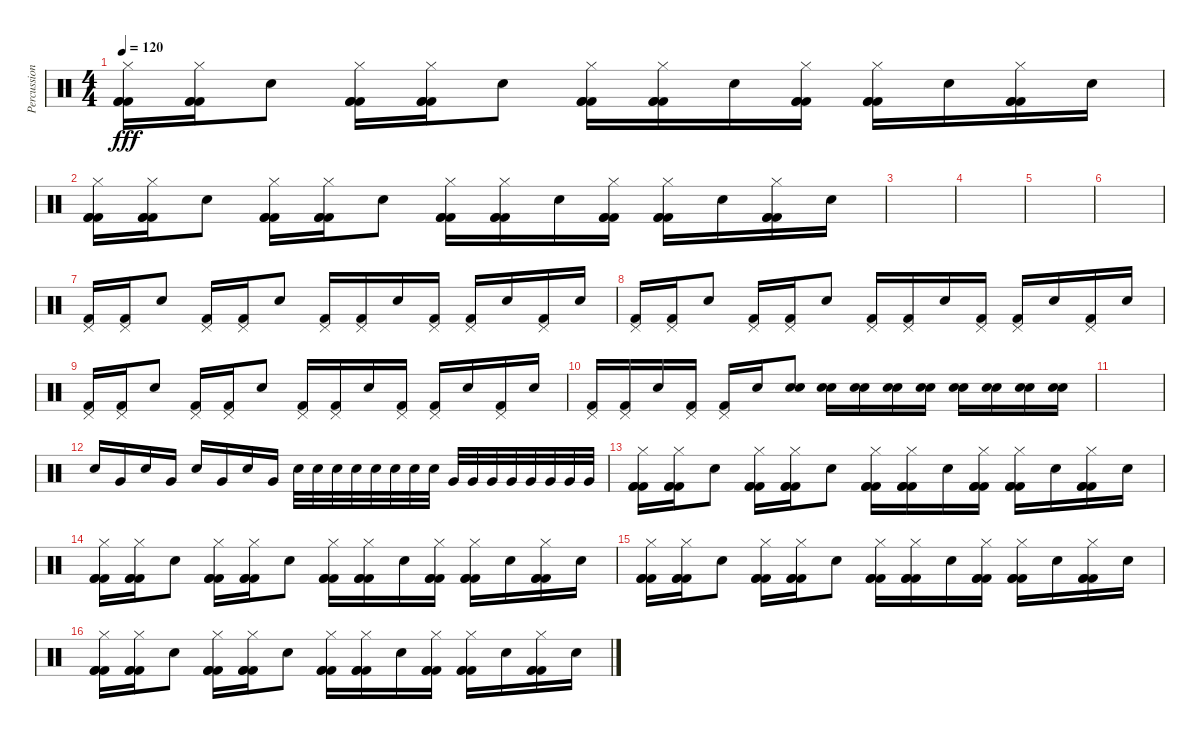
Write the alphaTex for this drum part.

\track ("Percussion" "Percussion") {instrument percussion}
\staff {score}
\articulation defaults
\ts (4 4)
\tempo 120
\clef neutral
\ks c
("Kick (hit) 2" "Kick (hit) 2" "Hi-Hat (closed)" "Kick (hit) 2").16{dy fff} ("Kick (hit) 2" "Kick (hit) 2" "Hi-Hat (closed)" "Kick (hit) 2").16 "Snare (hit) 2".8 ("Kick (hit) 2" "Kick (hit) 2" "Hi-Hat (closed)" "Kick (hit) 2").16 ("Kick (hit) 2" "Kick (hit) 2" "Hi-Hat (closed)" "Kick (hit) 2").16 "Snare (hit) 2".8 ("Kick (hit) 2" "Kick (hit) 2" "Hi-Hat (closed)" "Kick (hit) 2").16 ("Kick (hit) 2" "Kick (hit) 2" "Hi-Hat (closed)" "Kick (hit) 2").16 "Snare (hit) 2".16 ("Kick (hit) 2" "Kick (hit) 2" "Hi-Hat (closed)" "Kick (hit) 2").16 ("Kick (hit) 2" "Kick (hit) 2" "Hi-Hat (closed)" "Kick (hit) 2").16 "Snare (hit) 2".16 ("Kick (hit) 2" "Kick (hit) 2" "Hi-Hat (closed)" "Kick (hit) 2").16 "Snare (hit) 2".16 |
("Kick (hit) 2" "Kick (hit) 2" "Hi-Hat (closed)" "Kick (hit) 2").16 ("Kick (hit) 2" "Kick (hit) 2" "Hi-Hat (closed)" "Kick (hit) 2").16 "Snare (hit) 2".8 ("Kick (hit) 2" "Kick (hit) 2" "Hi-Hat (closed)" "Kick (hit) 2").16 ("Kick (hit) 2" "Kick (hit) 2" "Hi-Hat (closed)" "Kick (hit) 2").16 "Snare (hit) 2".8 ("Kick (hit) 2" "Kick (hit) 2" "Hi-Hat (closed)" "Kick (hit) 2").16 ("Kick (hit) 2" "Kick (hit) 2" "Hi-Hat (closed)" "Kick (hit) 2").16 "Snare (hit) 2".16 ("Kick (hit) 2" "Kick (hit) 2" "Hi-Hat (closed)" "Kick (hit) 2").16 ("Kick (hit) 2" "Kick (hit) 2" "Hi-Hat (closed)" "Kick (hit) 2").16 "Snare (hit) 2".16 ("Kick (hit) 2" "Kick (hit) 2" "Hi-Hat (closed)" "Kick (hit) 2").16 "Snare (hit) 2".16 |
|
|
|
|
("Pedal Hi-Hat (hit)" "Kick (hit) 2").16 ("Pedal Hi-Hat (hit)" "Kick (hit) 2").16 "Snare (hit) 2".8 ("Pedal Hi-Hat (hit)" "Kick (hit) 2").16 ("Pedal Hi-Hat (hit)" "Kick (hit) 2").16 "Snare (hit) 2".8 ("Pedal Hi-Hat (hit)" "Kick (hit) 2").16 ("Pedal Hi-Hat (hit)" "Kick (hit) 2").16 "Snare (hit) 2".16 ("Pedal Hi-Hat (hit)" "Kick (hit) 2").16 ("Pedal Hi-Hat (hit)" "Kick (hit) 2").16 "Snare (hit) 2".16 ("Pedal Hi-Hat (hit)" "Kick (hit) 2").16 "Snare (hit) 2".16 |
("Pedal Hi-Hat (hit)" "Kick (hit) 2").16 ("Pedal Hi-Hat (hit)" "Kick (hit) 2").16 "Snare (hit) 2".8 ("Pedal Hi-Hat (hit)" "Kick (hit) 2").16 ("Pedal Hi-Hat (hit)" "Kick (hit) 2").16 "Snare (hit) 2".8 ("Pedal Hi-Hat (hit)" "Kick (hit) 2").16 ("Pedal Hi-Hat (hit)" "Kick (hit) 2").16 "Snare (hit) 2".16 ("Pedal Hi-Hat (hit)" "Kick (hit) 2").16 ("Pedal Hi-Hat (hit)" "Kick (hit) 2").16 "Snare (hit) 2".16 ("Pedal Hi-Hat (hit)" "Kick (hit) 2").16 "Snare (hit) 2".16 |
("Pedal Hi-Hat (hit)" "Kick (hit) 2").16 ("Pedal Hi-Hat (hit)" "Kick (hit) 2").16 "Snare (hit) 2".8 ("Pedal Hi-Hat (hit)" "Kick (hit) 2").16 ("Pedal Hi-Hat (hit)" "Kick (hit) 2").16 "Snare (hit) 2".8 ("Pedal Hi-Hat (hit)" "Kick (hit) 2").16 ("Pedal Hi-Hat (hit)" "Kick (hit) 2").16 "Snare (hit) 2".16 ("Pedal Hi-Hat (hit)" "Kick (hit) 2").16 ("Pedal Hi-Hat (hit)" "Kick (hit) 2").16 "Snare (hit) 2".16 ("Pedal Hi-Hat (hit)" "Kick (hit) 2").16 "Snare (hit) 2".16 |
("Pedal Hi-Hat (hit)" "Kick (hit) 2").16 ("Pedal Hi-Hat (hit)" "Kick (hit) 2").16 "Snare (hit) 2".16 ("Pedal Hi-Hat (hit)" "Kick (hit) 2").16 ("Pedal Hi-Hat (hit)" "Kick (hit) 2").16 "Snare (hit) 2".16 ("Snare (hit) 2" "Snare (hit) 2").8 ("Snare (hit) 2" "Snare (hit) 2").16 ("Snare (hit) 2" "Snare (hit) 2").16 ("Snare (hit) 2" "Snare (hit) 2").16 ("Snare (hit) 2" "Snare (hit) 2").16 ("Snare (hit) 2" "Snare (hit) 2").16 ("Snare (hit) 2" "Snare (hit) 2").16 ("Snare (hit) 2" "Snare (hit) 2").16 ("Snare (hit) 2" "Snare (hit) 2").16 |
|
"Snare (hit) 2".16 "Very Low Tom (hit)".16 "Snare (hit) 2".16 "Very Low Tom (hit)".16 "Snare (hit) 2".16 "Very Low Tom (hit)".16 "Snare (hit) 2".16 "Very Low Tom (hit)".16 "Snare (hit) 2".32 "Snare (hit) 2".32 "Snare (hit) 2".32 "Snare (hit) 2".32 "Snare (hit) 2".32 "Snare (hit) 2".32 "Snare (hit) 2".32 "Snare (hit) 2".32 "Very Low Tom (hit)".32 "Very Low Tom (hit)".32 "Very Low Tom (hit)".32 "Very Low Tom (hit)".32 "Very Low Tom (hit)".32 "Very Low Tom (hit)".32 "Very Low Tom (hit)".32 "Very Low Tom (hit)".32 |
("Kick (hit) 2" "Kick (hit) 2" "Hi-Hat (closed)" "Kick (hit) 2").16 ("Kick (hit) 2" "Kick (hit) 2" "Hi-Hat (closed)" "Kick (hit) 2").16 "Snare (hit) 2".8 ("Kick (hit) 2" "Kick (hit) 2" "Hi-Hat (closed)" "Kick (hit) 2").16 ("Kick (hit) 2" "Kick (hit) 2" "Hi-Hat (closed)" "Kick (hit) 2").16 "Snare (hit) 2".8 ("Kick (hit) 2" "Kick (hit) 2" "Hi-Hat (closed)" "Kick (hit) 2").16 ("Kick (hit) 2" "Kick (hit) 2" "Hi-Hat (closed)" "Kick (hit) 2").16 "Snare (hit) 2".16 ("Kick (hit) 2" "Kick (hit) 2" "Hi-Hat (closed)" "Kick (hit) 2").16 ("Kick (hit) 2" "Kick (hit) 2" "Hi-Hat (closed)" "Kick (hit) 2").16 "Snare (hit) 2".16 ("Kick (hit) 2" "Kick (hit) 2" "Hi-Hat (closed)" "Kick (hit) 2").16 "Snare (hit) 2".16 |
("Kick (hit) 2" "Kick (hit) 2" "Hi-Hat (closed)" "Kick (hit) 2").16 ("Kick (hit) 2" "Kick (hit) 2" "Hi-Hat (closed)" "Kick (hit) 2").16 "Snare (hit) 2".8 ("Kick (hit) 2" "Kick (hit) 2" "Hi-Hat (closed)" "Kick (hit) 2").16 ("Kick (hit) 2" "Kick (hit) 2" "Hi-Hat (closed)" "Kick (hit) 2").16 "Snare (hit) 2".8 ("Kick (hit) 2" "Kick (hit) 2" "Hi-Hat (closed)" "Kick (hit) 2").16 ("Kick (hit) 2" "Kick (hit) 2" "Hi-Hat (closed)" "Kick (hit) 2").16 "Snare (hit) 2".16 ("Kick (hit) 2" "Kick (hit) 2" "Hi-Hat (closed)" "Kick (hit) 2").16 ("Kick (hit) 2" "Kick (hit) 2" "Hi-Hat (closed)" "Kick (hit) 2").16 "Snare (hit) 2".16 ("Kick (hit) 2" "Kick (hit) 2" "Hi-Hat (closed)" "Kick (hit) 2").16 "Snare (hit) 2".16 |
("Kick (hit) 2" "Kick (hit) 2" "Hi-Hat (closed)" "Kick (hit) 2").16 ("Kick (hit) 2" "Kick (hit) 2" "Hi-Hat (closed)" "Kick (hit) 2").16 "Snare (hit) 2".8 ("Kick (hit) 2" "Kick (hit) 2" "Hi-Hat (closed)" "Kick (hit) 2").16 ("Kick (hit) 2" "Kick (hit) 2" "Hi-Hat (closed)" "Kick (hit) 2").16 "Snare (hit) 2".8 ("Kick (hit) 2" "Kick (hit) 2" "Hi-Hat (closed)" "Kick (hit) 2").16 ("Kick (hit) 2" "Kick (hit) 2" "Hi-Hat (closed)" "Kick (hit) 2").16 "Snare (hit) 2".16 ("Kick (hit) 2" "Kick (hit) 2" "Hi-Hat (closed)" "Kick (hit) 2").16 ("Kick (hit) 2" "Kick (hit) 2" "Hi-Hat (closed)" "Kick (hit) 2").16 "Snare (hit) 2".16 ("Kick (hit) 2" "Kick (hit) 2" "Hi-Hat (closed)" "Kick (hit) 2").16 "Snare (hit) 2".16 |
("Kick (hit) 2" "Kick (hit) 2" "Hi-Hat (closed)" "Kick (hit) 2").16 ("Kick (hit) 2" "Kick (hit) 2" "Hi-Hat (closed)" "Kick (hit) 2").16 "Snare (hit) 2".8 ("Kick (hit) 2" "Kick (hit) 2" "Hi-Hat (closed)" "Kick (hit) 2").16 ("Kick (hit) 2" "Kick (hit) 2" "Hi-Hat (closed)" "Kick (hit) 2").16 "Snare (hit) 2".8 ("Kick (hit) 2" "Kick (hit) 2" "Hi-Hat (closed)" "Kick (hit) 2").16 ("Kick (hit) 2" "Kick (hit) 2" "Hi-Hat (closed)" "Kick (hit) 2").16 "Snare (hit) 2".16 ("Kick (hit) 2" "Kick (hit) 2" "Hi-Hat (closed)" "Kick (hit) 2").16 ("Kick (hit) 2" "Kick (hit) 2" "Hi-Hat (closed)" "Kick (hit) 2").16 "Snare (hit) 2".16 ("Kick (hit) 2" "Kick (hit) 2" "Hi-Hat (closed)" "Kick (hit) 2").16 "Snare (hit) 2".16
